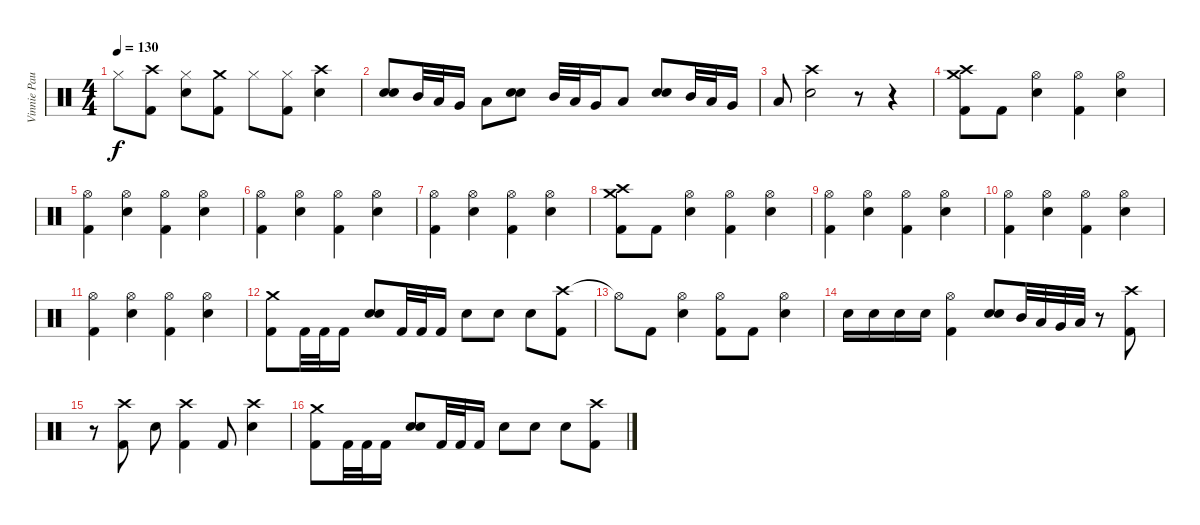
\track ("Vinnie Paul" "Vinnie Pau") {instrument percussion}
\staff {score}
\articulation defaults
\ts (4 4)
\tempo 130
\clef neutral
\ks c "Hi-Hat (closed)".8{dy f}
("Crash high (hit)" "Kick (hit) 2").8 ("Hi-Hat (closed)" "Snare (hit) 2").8 ("Crash medium (hit)" "Kick (hit) 2").8 "Hi-Hat (closed)".8 ("Hi-Hat (closed)" "Kick (hit) 2").8 ("Crash high (hit)" "Snare (hit) 2").4 |
("Snare (hit) 2" "Snare (hit) 2").8{bd 120} "Mid Tom (hit)".32 "Low Tom (hit)".32 "Very Low Tom (hit)".16 "Low Floor Tom (hit)".8 ("Snare (hit) 2" "Snare (hit) 2").8{bd 120} "Mid Tom (hit)".32 "Low Tom (hit)".32 "Very Low Tom (hit)".16 "Low Floor Tom (hit)".8 ("Snare (hit) 2" "Snare (hit) 2").8{bd 120} "Mid Tom (hit)".32 "Low Tom (hit)".32 "Very Low Tom (hit)".16 |
"Low Floor Tom (hit)".8 ("Crash high (hit)" "Snare (hit) 2").2 r.8 r.4 |
("Crash high (hit)" "Crash medium (hit)" "Kick (hit) 2").8 "Kick (hit) 2".8 ("Hi-Hat (open)" "Snare (hit) 2").4 ("Hi-Hat (open)" "Kick (hit) 2").4 ("Hi-Hat (open)" "Snare (hit) 2").4 |
("Hi-Hat (open)" "Kick (hit) 2").4 ("Hi-Hat (open)" "Snare (hit) 2").4 ("Hi-Hat (open)" "Kick (hit) 2").4 ("Hi-Hat (open)" "Snare (hit) 2").4 |
("Hi-Hat (open)" "Kick (hit) 2").4 ("Hi-Hat (open)" "Snare (hit) 2").4 ("Hi-Hat (open)" "Kick (hit) 2").4 ("Hi-Hat (open)" "Snare (hit) 2").4 |
("Hi-Hat (open)" "Kick (hit) 2").4 ("Hi-Hat (open)" "Snare (hit) 2").4 ("Hi-Hat (open)" "Kick (hit) 2").4 ("Hi-Hat (open)" "Snare (hit) 2").4 |
("Crash high (hit)" "Crash medium (hit)" "Kick (hit) 2").8 "Kick (hit) 2".8 ("Hi-Hat (open)" "Snare (hit) 2").4 ("Hi-Hat (open)" "Kick (hit) 2").4 ("Hi-Hat (open)" "Snare (hit) 2").4 |
("Hi-Hat (open)" "Kick (hit) 2").4 ("Hi-Hat (open)" "Snare (hit) 2").4 ("Hi-Hat (open)" "Kick (hit) 2").4 ("Hi-Hat (open)" "Snare (hit) 2").4 |
("Hi-Hat (open)" "Kick (hit) 2").4 ("Hi-Hat (open)" "Snare (hit) 2").4 ("Hi-Hat (open)" "Kick (hit) 2").4 ("Hi-Hat (open)" "Snare (hit) 2").4 |
("Hi-Hat (open)" "Kick (hit) 2").4 ("Hi-Hat (open)" "Snare (hit) 2").4 ("Hi-Hat (open)" "Kick (hit) 2").4 ("Hi-Hat (open)" "Snare (hit) 2").4 |
("Crash medium (hit)" "Kick (hit) 2").8 "Kick (hit) 2".32 "Kick (hit) 2".32 "Kick (hit) 2".16 ("Snare (hit) 2" "Snare (hit) 2").8{bd 120} "Kick (hit) 2".32 "Kick (hit) 2".32 "Kick (hit) 2".16 "Snare (hit) 2".8 "Snare (hit) 2".8 "Snare (hit) 2".8 ("Crash high (hit)" "Kick (hit) 2").8 |
"Hi-Hat (open)"{t}.8 "Kick (hit) 2".8 ("Hi-Hat (open)" "Snare (hit) 2").4 ("Hi-Hat (open)" "Kick (hit) 2").8 "Kick (hit) 2".8 ("Hi-Hat (open)" "Snare (hit) 2").4 |
"Snare (hit) 2".16 "Snare (hit) 2".16 "Snare (hit) 2".16 "Snare (hit) 2".16 ("Hi-Hat (open)" "Kick (hit) 2").4 ("Snare (hit) 2" "Snare (hit) 2").8{bd 120} "Mid Tom (hit)".32 "Low Tom (hit)".32 "Very Low Tom (hit)".32 "Low Floor Tom (hit)".32 r.8 ("Crash high (hit)" "Kick (hit) 2").8 |
r.8 ("Crash high (hit)" "Kick (hit) 2").8 "Snare (hit) 2".8 ("Crash high (hit)" "Kick (hit) 2").4 "Kick (hit) 2".8 ("Crash high (hit)" "Snare (hit) 2").4 |
("Crash medium (hit)" "Kick (hit) 2").8 "Kick (hit) 2".32 "Kick (hit) 2".32 "Kick (hit) 2".16 ("Snare (hit) 2" "Snare (hit) 2").8{bd 120} "Kick (hit) 2".32 "Kick (hit) 2".32 "Kick (hit) 2".16 "Snare (hit) 2".8 "Snare (hit) 2".8 "Snare (hit) 2".8 ("Crash high (hit)" "Kick (hit) 2").8
